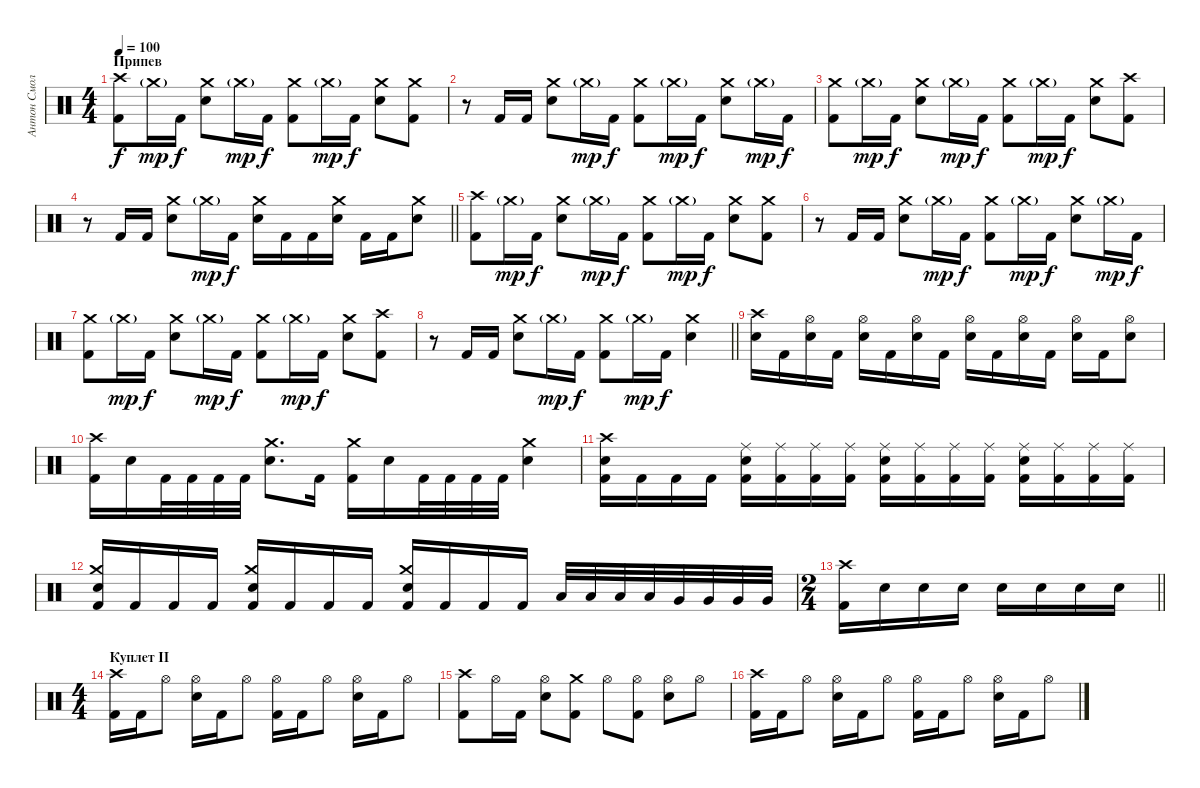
\track ("Антон Смольянин" "Антон Смол") {instrument percussion}
\staff {score}
\articulation defaults
\ts (4 4)
\section ("" "Припев")
\tempo 100
\clef neutral
\ks c
("Crash high (hit)" "Kick (hit) 2").8{dy f} "Crash medium (hit)"{g}.16{dy mp} "Kick (hit) 2".16{dy f} ("Crash medium (hit)" "Electric Snare (hit)").8 "Crash medium (hit)"{g}.16{dy mp} "Kick (hit) 2".16{dy f} ("Crash medium (hit)" "Kick (hit) 2").8 "Crash medium (hit)"{g}.16{dy mp} "Kick (hit) 2".16{dy f} ("Crash medium (hit)" "Electric Snare (hit)").8 ("Crash medium (hit)" "Kick (hit) 2").8 |
r.8 "Kick (hit) 2".16 "Kick (hit) 2".16 ("Crash medium (hit)" "Electric Snare (hit)").8 "Crash medium (hit)"{g}.16{dy mp} "Kick (hit) 2".16{dy f} ("Crash medium (hit)" "Kick (hit) 2").8 "Crash medium (hit)"{g}.16{dy mp} "Kick (hit) 2".16{dy f} ("Crash medium (hit)" "Electric Snare (hit)").8 "Crash medium (hit)"{g}.16{dy mp} "Kick (hit) 2".16{dy f} |
("Crash medium (hit)" "Kick (hit) 2").8 "Crash medium (hit)"{g}.16{dy mp} "Kick (hit) 2".16{dy f} ("Crash medium (hit)" "Electric Snare (hit)").8 "Crash medium (hit)"{g}.16{dy mp} "Kick (hit) 2".16{dy f} ("Crash medium (hit)" "Kick (hit) 2").8 "Crash medium (hit)"{g}.16{dy mp} "Kick (hit) 2".16{dy f} ("Crash medium (hit)" "Electric Snare (hit)").8 ("Crash high (hit)" "Kick (hit) 2").8 |
\barLineRight lightlight
r.8 "Kick (hit) 2".16 "Kick (hit) 2".16 ("Crash medium (hit)" "Electric Snare (hit)").8 "Crash medium (hit)"{g}.16{dy mp} "Kick (hit) 2".16{dy f} ("Crash medium (hit)" "Electric Snare (hit)").16 "Kick (hit) 2".16 "Kick (hit) 2".16 ("Crash medium (hit)" "Electric Snare (hit)").16 "Kick (hit) 2".16 "Kick (hit) 2".16 ("Crash medium (hit)" "Electric Snare (hit)").8 |
("Crash high (hit)" "Kick (hit) 2").8 "Crash medium (hit)"{g}.16{dy mp} "Kick (hit) 2".16{dy f} ("Crash medium (hit)" "Electric Snare (hit)").8 "Crash medium (hit)"{g}.16{dy mp} "Kick (hit) 2".16{dy f} ("Crash medium (hit)" "Kick (hit) 2").8 "Crash medium (hit)"{g}.16{dy mp} "Kick (hit) 2".16{dy f} ("Crash medium (hit)" "Electric Snare (hit)").8 ("Crash medium (hit)" "Kick (hit) 2").8 |
r.8 "Kick (hit) 2".16 "Kick (hit) 2".16 ("Crash medium (hit)" "Electric Snare (hit)").8 "Crash medium (hit)"{g}.16{dy mp} "Kick (hit) 2".16{dy f} ("Crash medium (hit)" "Kick (hit) 2").8 "Crash medium (hit)"{g}.16{dy mp} "Kick (hit) 2".16{dy f} ("Crash medium (hit)" "Electric Snare (hit)").8 "Crash medium (hit)"{g}.16{dy mp} "Kick (hit) 2".16{dy f} |
("Crash medium (hit)" "Kick (hit) 2").8 "Crash medium (hit)"{g}.16{dy mp} "Kick (hit) 2".16{dy f} ("Crash medium (hit)" "Electric Snare (hit)").8 "Crash medium (hit)"{g}.16{dy mp} "Kick (hit) 2".16{dy f} ("Crash medium (hit)" "Kick (hit) 2").8 "Crash medium (hit)"{g}.16{dy mp} "Kick (hit) 2".16{dy f} ("Crash medium (hit)" "Electric Snare (hit)").8 ("Crash high (hit)" "Kick (hit) 2").8 |
\barLineRight lightlight
r.8 "Kick (hit) 2".16 "Kick (hit) 2".16 ("Crash medium (hit)" "Electric Snare (hit)").8 "Crash medium (hit)"{g}.16{dy mp} "Kick (hit) 2".16{dy f} ("Crash medium (hit)" "Kick (hit) 2").8 "Crash medium (hit)"{g}.16{dy mp} "Kick (hit) 2".16{dy f} ("Crash medium (hit)" "Electric Snare (hit)").4 |
("Crash high (hit)" "Electric Snare (hit)").16 "Kick (hit) 2".16 ("Hi-Hat (open)" "Electric Snare (hit)").16 "Kick (hit) 2".16 ("Hi-Hat (open)" "Electric Snare (hit)").16 "Kick (hit) 2".16 ("Hi-Hat (open)" "Electric Snare (hit)").16 "Kick (hit) 2".16 ("Hi-Hat (open)" "Electric Snare (hit)").16 "Kick (hit) 2".16 ("Hi-Hat (open)" "Electric Snare (hit)").16 "Kick (hit) 2".16 ("Hi-Hat (open)" "Electric Snare (hit)").16 "Kick (hit) 2".16 ("Hi-Hat (open)" "Electric Snare (hit)").8 |
("Crash high (hit)" "Kick (hit) 2").16 "Electric Snare (hit)".16 "Kick (hit) 2".32 "Kick (hit) 2".32 "Kick (hit) 2".32 "Kick (hit) 2".32 ("Crash medium (hit)" "Electric Snare (hit)").8{d} "Kick (hit) 2".16 ("Crash medium (hit)" "Kick (hit) 2").16 "Electric Snare (hit)".16 "Kick (hit) 2".32 "Kick (hit) 2".32 "Kick (hit) 2".32 "Kick (hit) 2".32 ("Crash medium (hit)" "Electric Snare (hit)").4 |
("Crash high (hit)" "Electric Snare (hit)" "Kick (hit) 2").16 "Kick (hit) 2".16 "Kick (hit) 2".16 "Kick (hit) 2".16 ("Ride (middle)" "Electric Snare (hit)" "Kick (hit) 2").16 ("Ride (middle)" "Kick (hit) 2").16 ("Ride (middle)" "Kick (hit) 2").16 ("Ride (middle)" "Kick (hit) 2").16 ("Ride (middle)" "Electric Snare (hit)" "Kick (hit) 2").16 ("Ride (middle)" "Kick (hit) 2").16 ("Ride (middle)" "Kick (hit) 2").16 ("Ride (middle)" "Kick (hit) 2").16 ("Ride (middle)" "Electric Snare (hit)" "Kick (hit) 2").16 ("Ride (middle)" "Kick (hit) 2").16 ("Ride (middle)" "Kick (hit) 2").16 ("Ride (middle)" "Kick (hit) 2").16 |
("Crash medium (hit)" "Electric Snare (hit)" "Kick (hit) 2").16 "Kick (hit) 2".16 "Kick (hit) 2".16 "Kick (hit) 2".16 ("Crash medium (hit)" "Electric Snare (hit)" "Kick (hit) 2").16 "Kick (hit) 2".16 "Kick (hit) 2".16 "Kick (hit) 2".16 ("Crash medium (hit)" "Electric Snare (hit)" "Kick (hit) 2").16 "Kick (hit) 2".16 "Kick (hit) 2".16 "Kick (hit) 2".16 "Low Tom (hit)".32 "Low Tom (hit)".32 "Low Tom (hit)".32 "Low Tom (hit)".32 "Very Low Tom (hit)".32 "Very Low Tom (hit)".32 "Very Low Tom (hit)".32 "Very Low Tom (hit)".32 |
\ts (2 4)
\barLineRight lightlight
("Crash high (hit)" "Kick (hit) 2").16 "Electric Snare (hit)".16 "Electric Snare (hit)".16 "Electric Snare (hit)".16 "Electric Snare (hit)".16 "Electric Snare (hit)".16 "Electric Snare (hit)".16 "Electric Snare (hit)".16 |
\ts (4 4)
\section ("" "Куплет II")
("Crash high (hit)" "Kick (hit) 2").16 "Kick (hit) 2".16 "Hi-Hat (open)".8 ("Hi-Hat (open)" "Electric Snare (hit)").16 "Kick (hit) 2".16 "Hi-Hat (open)".8 ("Hi-Hat (open)" "Kick (hit) 2").16 "Kick (hit) 2".16 "Hi-Hat (open)".8 ("Hi-Hat (open)" "Electric Snare (hit)").16 "Kick (hit) 2".16 "Hi-Hat (open)".8 |
("Crash high (hit)" "Kick (hit) 2").8 "Hi-Hat (open)".16 "Kick (hit) 2".16 ("Hi-Hat (open)" "Electric Snare (hit)").8 ("Crash medium (hit)" "Kick (hit) 2").8 "Hi-Hat (open)".8 ("Hi-Hat (open)" "Kick (hit) 2").8 ("Hi-Hat (open)" "Electric Snare (hit)").8 "Hi-Hat (open)".8 |
("Crash high (hit)" "Kick (hit) 2").16 "Kick (hit) 2".16 "Hi-Hat (open)".8 ("Hi-Hat (open)" "Electric Snare (hit)").16 "Kick (hit) 2".16 "Hi-Hat (open)".8 ("Hi-Hat (open)" "Kick (hit) 2").16 "Kick (hit) 2".16 "Hi-Hat (open)".8 ("Hi-Hat (open)" "Electric Snare (hit)").16 "Kick (hit) 2".16 "Hi-Hat (open)".8
